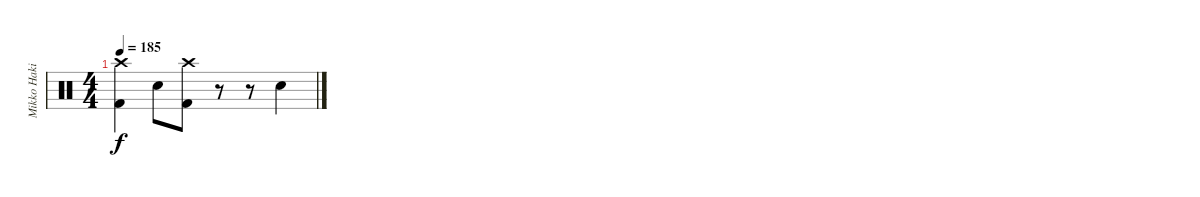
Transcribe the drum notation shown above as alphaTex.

\track ("Mikko Hakila" "Mikko Haki") {instrument percussion}
\staff {score}
\articulation defaults
\ts (4 4)
\tempo 185
\clef neutral
\ks c
("Crash high (hit)" "Kick (hit) 2").4{dy f} "Snare (hit) 2".8 ("Crash high (hit)" "Kick (hit) 2").8 r.8 r.8 "Snare (hit) 2".4
